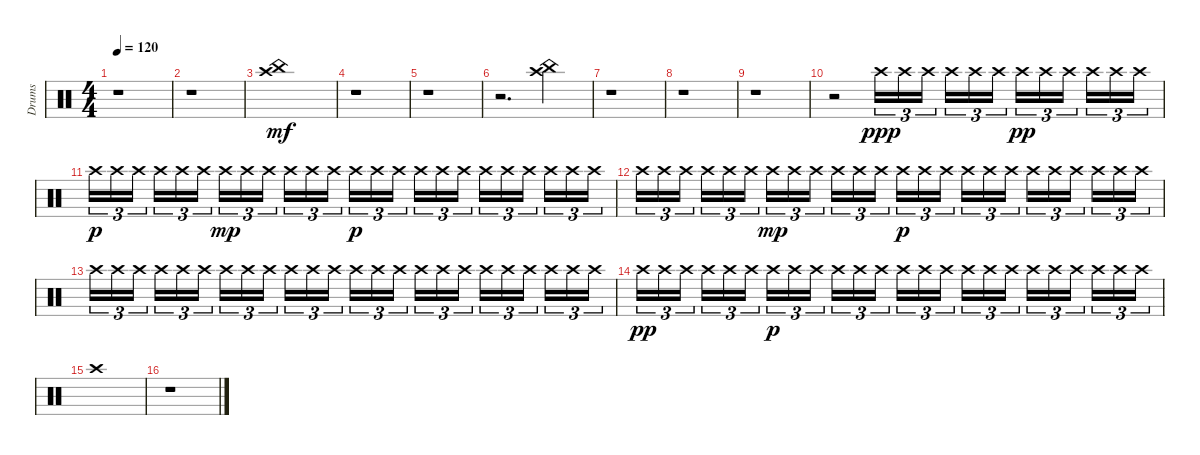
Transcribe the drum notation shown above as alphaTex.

\track ("Drums" "Drums") {instrument percussion}
\staff {score}
\articulation defaults
\ts (4 4)
\tempo 120
\clef neutral
\ks c
r.1{dy mf} |
r.1 |
("Crash high (hit)" "China (hit)").1 |
r.1 |
r.1 |
r.2{d} ("Crash high (hit)" "China (hit)").4 |
r.1 |
r.1 |
r.1 |
r.2 "Crash high (hit)".16{tu (3 2) dy ppp} "Crash high (hit)".16{tu (3 2)} "Crash high (hit)".16{tu (3 2)} "Crash high (hit)".16{tu (3 2)} "Crash high (hit)".16{tu (3 2)} "Crash high (hit)".16{tu (3 2)} "Crash high (hit)".16{tu (3 2) dy pp} "Crash high (hit)".16{tu (3 2)} "Crash high (hit)".16{tu (3 2)} "Crash high (hit)".16{tu (3 2)} "Crash high (hit)".16{tu (3 2)} "Crash high (hit)".16{tu (3 2)} |
"Crash high (hit)".16{tu (3 2) dy p} "Crash high (hit)".16{tu (3 2)} "Crash high (hit)".16{tu (3 2)} "Crash high (hit)".16{tu (3 2)} "Crash high (hit)".16{tu (3 2)} "Crash high (hit)".16{tu (3 2)} "Crash high (hit)".16{tu (3 2) dy mp} "Crash high (hit)".16{tu (3 2)} "Crash high (hit)".16{tu (3 2)} "Crash high (hit)".16{tu (3 2)} "Crash high (hit)".16{tu (3 2)} "Crash high (hit)".16{tu (3 2)} "Crash high (hit)".16{tu (3 2) dy p} "Crash high (hit)".16{tu (3 2)} "Crash high (hit)".16{tu (3 2)} "Crash high (hit)".16{tu (3 2)} "Crash high (hit)".16{tu (3 2)} "Crash high (hit)".16{tu (3 2)} "Crash high (hit)".16{tu (3 2)} "Crash high (hit)".16{tu (3 2)} "Crash high (hit)".16{tu (3 2)} "Crash high (hit)".16{tu (3 2)} "Crash high (hit)".16{tu (3 2)} "Crash high (hit)".16{tu (3 2)} |
"Crash high (hit)".16{tu (3 2)} "Crash high (hit)".16{tu (3 2)} "Crash high (hit)".16{tu (3 2)} "Crash high (hit)".16{tu (3 2)} "Crash high (hit)".16{tu (3 2)} "Crash high (hit)".16{tu (3 2)} "Crash high (hit)".16{tu (3 2) dy mp} "Crash high (hit)".16{tu (3 2)} "Crash high (hit)".16{tu (3 2)} "Crash high (hit)".16{tu (3 2)} "Crash high (hit)".16{tu (3 2)} "Crash high (hit)".16{tu (3 2)} "Crash high (hit)".16{tu (3 2) dy p} "Crash high (hit)".16{tu (3 2)} "Crash high (hit)".16{tu (3 2)} "Crash high (hit)".16{tu (3 2)} "Crash high (hit)".16{tu (3 2)} "Crash high (hit)".16{tu (3 2)} "Crash high (hit)".16{tu (3 2)} "Crash high (hit)".16{tu (3 2)} "Crash high (hit)".16{tu (3 2)} "Crash high (hit)".16{tu (3 2)} "Crash high (hit)".16{tu (3 2)} "Crash high (hit)".16{tu (3 2)} |
"Crash high (hit)".16{tu (3 2)} "Crash high (hit)".16{tu (3 2)} "Crash high (hit)".16{tu (3 2)} "Crash high (hit)".16{tu (3 2)} "Crash high (hit)".16{tu (3 2)} "Crash high (hit)".16{tu (3 2)} "Crash high (hit)".16{tu (3 2)} "Crash high (hit)".16{tu (3 2)} "Crash high (hit)".16{tu (3 2)} "Crash high (hit)".16{tu (3 2)} "Crash high (hit)".16{tu (3 2)} "Crash high (hit)".16{tu (3 2)} "Crash high (hit)".16{tu (3 2)} "Crash high (hit)".16{tu (3 2)} "Crash high (hit)".16{tu (3 2)} "Crash high (hit)".16{tu (3 2)} "Crash high (hit)".16{tu (3 2)} "Crash high (hit)".16{tu (3 2)} "Crash high (hit)".16{tu (3 2)} "Crash high (hit)".16{tu (3 2)} "Crash high (hit)".16{tu (3 2)} "Crash high (hit)".16{tu (3 2)} "Crash high (hit)".16{tu (3 2)} "Crash high (hit)".16{tu (3 2)} |
"Crash high (hit)".16{tu (3 2) dy pp} "Crash high (hit)".16{tu (3 2)} "Crash high (hit)".16{tu (3 2)} "Crash high (hit)".16{tu (3 2)} "Crash high (hit)".16{tu (3 2)} "Crash high (hit)".16{tu (3 2)} "Crash high (hit)".16{tu (3 2) dy p} "Crash high (hit)".16{tu (3 2)} "Crash high (hit)".16{tu (3 2)} "Crash high (hit)".16{tu (3 2)} "Crash high (hit)".16{tu (3 2)} "Crash high (hit)".16{tu (3 2)} "Crash high (hit)".16{tu (3 2)} "Crash high (hit)".16{tu (3 2)} "Crash high (hit)".16{tu (3 2)} "Crash high (hit)".16{tu (3 2)} "Crash high (hit)".16{tu (3 2)} "Crash high (hit)".16{tu (3 2)} "Crash high (hit)".16{tu (3 2)} "Crash high (hit)".16{tu (3 2)} "Crash high (hit)".16{tu (3 2)} "Crash high (hit)".16{tu (3 2)} "Crash high (hit)".16{tu (3 2)} "Crash high (hit)".16{tu (3 2)} |
"Crash high (hit)".1 |
r.1
